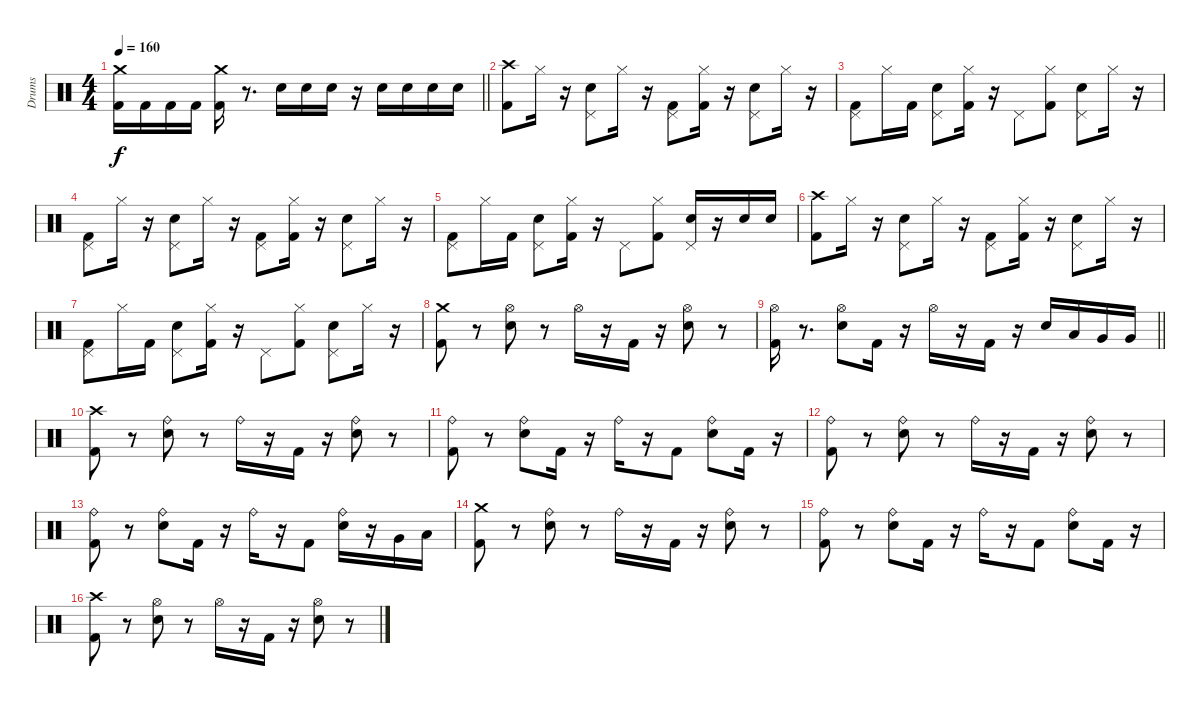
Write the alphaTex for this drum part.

\track ("Drums" "Drums") {instrument percussion}
\staff {score}
\articulation defaults
\ts (4 4)
\tempo 160
\clef neutral
\barLineRight lightlight
\ks c
("Kick (hit) 2" "Crash medium (hit)").16{dy f} "Kick (hit) 2".16 "Kick (hit) 2".16 "Kick (hit) 2".16 ("Kick (hit) 2" "Crash medium (hit)").16 r.8{d} "Snare (hit) 2".16 "Snare (hit) 2".16 "Snare (hit) 2".16 r.16 "Snare (hit) 2".16 "Snare (hit) 2".16 "Snare (hit) 2".16 "Snare (hit) 2".16 |
\section ("" " ")
("Kick (hit) 2" "Crash high (hit)").8 "Hi-Hat (closed)".16 r.16 ("Snare (hit) 2" "Pedal Hi-Hat (hit)").8 "Hi-Hat (closed)".16 r.16 ("Kick (hit) 2" "Pedal Hi-Hat (hit)").8 ("Kick (hit) 2" "Hi-Hat (closed)").16 r.16 ("Snare (hit) 2" "Pedal Hi-Hat (hit)").8 "Hi-Hat (closed)".16 r.16 |
("Kick (hit) 2" "Pedal Hi-Hat (hit)").8 "Hi-Hat (closed)".16 "Kick (hit) 2".16 ("Snare (hit) 2" "Pedal Hi-Hat (hit)").8 ("Kick (hit) 2" "Hi-Hat (closed)").16 r.16 "Pedal Hi-Hat (hit)".8 ("Kick (hit) 2" "Hi-Hat (closed)").8 ("Snare (hit) 2" "Pedal Hi-Hat (hit)").8 "Hi-Hat (closed)".16 r.16 |
("Kick (hit) 2" "Pedal Hi-Hat (hit)").8 "Hi-Hat (closed)".16 r.16 ("Snare (hit) 2" "Pedal Hi-Hat (hit)").8 "Hi-Hat (closed)".16 r.16 ("Kick (hit) 2" "Pedal Hi-Hat (hit)").8 ("Kick (hit) 2" "Hi-Hat (closed)").16 r.16 ("Snare (hit) 2" "Pedal Hi-Hat (hit)").8 "Hi-Hat (closed)".16 r.16 |
("Kick (hit) 2" "Pedal Hi-Hat (hit)").8 "Hi-Hat (closed)".16 "Kick (hit) 2".16 ("Snare (hit) 2" "Pedal Hi-Hat (hit)").8 ("Kick (hit) 2" "Hi-Hat (closed)").16 r.16 "Pedal Hi-Hat (hit)".8 ("Kick (hit) 2" "Hi-Hat (closed)").8 ("Snare (hit) 2" "Pedal Hi-Hat (hit)").16 r.16 "Snare (hit) 2".16 "Snare (hit) 2".16 |
("Kick (hit) 2" "Crash high (hit)").8 "Hi-Hat (closed)".16 r.16 ("Snare (hit) 2" "Pedal Hi-Hat (hit)").8 "Hi-Hat (closed)".16 r.16 ("Kick (hit) 2" "Pedal Hi-Hat (hit)").8 ("Kick (hit) 2" "Hi-Hat (closed)").16 r.16 ("Snare (hit) 2" "Pedal Hi-Hat (hit)").8 "Hi-Hat (closed)".16 r.16 |
("Kick (hit) 2" "Pedal Hi-Hat (hit)").8 "Hi-Hat (closed)".16 "Kick (hit) 2".16 ("Snare (hit) 2" "Pedal Hi-Hat (hit)").8 ("Kick (hit) 2" "Hi-Hat (closed)").16 r.16 "Pedal Hi-Hat (hit)".8 ("Kick (hit) 2" "Hi-Hat (closed)").8 ("Snare (hit) 2" "Pedal Hi-Hat (hit)").8 "Hi-Hat (closed)".16 r.16 |
("Kick (hit) 2" "Crash medium (hit)").8 r.8 ("Snare (hit) 2" "Hi-Hat (open)").8 r.8 "Hi-Hat (open)".16 r.16 "Kick (hit) 2".16 r.16 ("Snare (hit) 2" "Hi-Hat (open)").8 r.8 |
\barLineRight lightlight
("Kick (hit) 2" "Hi-Hat (open)").16 r.8{d} ("Snare (hit) 2" "Hi-Hat (open)").8 "Kick (hit) 2".16 r.16 "Hi-Hat (open)".16 r.16 "Kick (hit) 2".16 r.16 "Snare (hit) 2".16 "Low Tom (hit)".16 "Very Low Tom (hit)".16 "Very Low Tom (hit)".16 |
\section ("" " ")
("Kick (hit) 2" "Crash high (hit)").8 r.8 ("Snare (hit) 2" "Ride (bell)").8 r.8 "Ride (bell)".16 r.16 "Kick (hit) 2".16 r.16 ("Snare (hit) 2" "Ride (bell)").8 r.8 |
("Kick (hit) 2" "Ride (bell)").8 r.8 ("Snare (hit) 2" "Ride (bell)").8 "Kick (hit) 2".16 r.16 "Ride (bell)".16 r.16 "Kick (hit) 2".8 ("Snare (hit) 2" "Ride (bell)").8 "Kick (hit) 2".16 r.16 |
("Kick (hit) 2" "Ride (bell)").8 r.8 ("Snare (hit) 2" "Ride (bell)").8 r.8 "Ride (bell)".16 r.16 "Kick (hit) 2".16 r.16 ("Snare (hit) 2" "Ride (bell)").8 r.8 |
("Kick (hit) 2" "Ride (bell)").8 r.8 ("Snare (hit) 2" "Ride (bell)").8 "Kick (hit) 2".16 r.16 "Ride (bell)".16 r.16 "Kick (hit) 2".8 ("Snare (hit) 2" "Ride (bell)").16 r.16 "Very Low Tom (hit)".16 "Low Floor Tom (hit)".16 |
("Kick (hit) 2" "Crash medium (hit)").8 r.8 ("Snare (hit) 2" "Ride (bell)").8 r.8 "Ride (bell)".16 r.16 "Kick (hit) 2".16 r.16 ("Snare (hit) 2" "Ride (bell)").8 r.8 |
("Kick (hit) 2" "Ride (bell)").8 r.8 ("Snare (hit) 2" "Ride (bell)").8 "Kick (hit) 2".16 r.16 "Ride (bell)".16 r.16 "Kick (hit) 2".8 ("Snare (hit) 2" "Ride (bell)").8 "Kick (hit) 2".16 r.16 |
("Kick (hit) 2" "Crash high (hit)").8 r.8 ("Snare (hit) 2" "Hi-Hat (open)").8 r.8 "Hi-Hat (open)".16 r.16 "Kick (hit) 2".16 r.16 ("Snare (hit) 2" "Hi-Hat (open)").8 r.8
